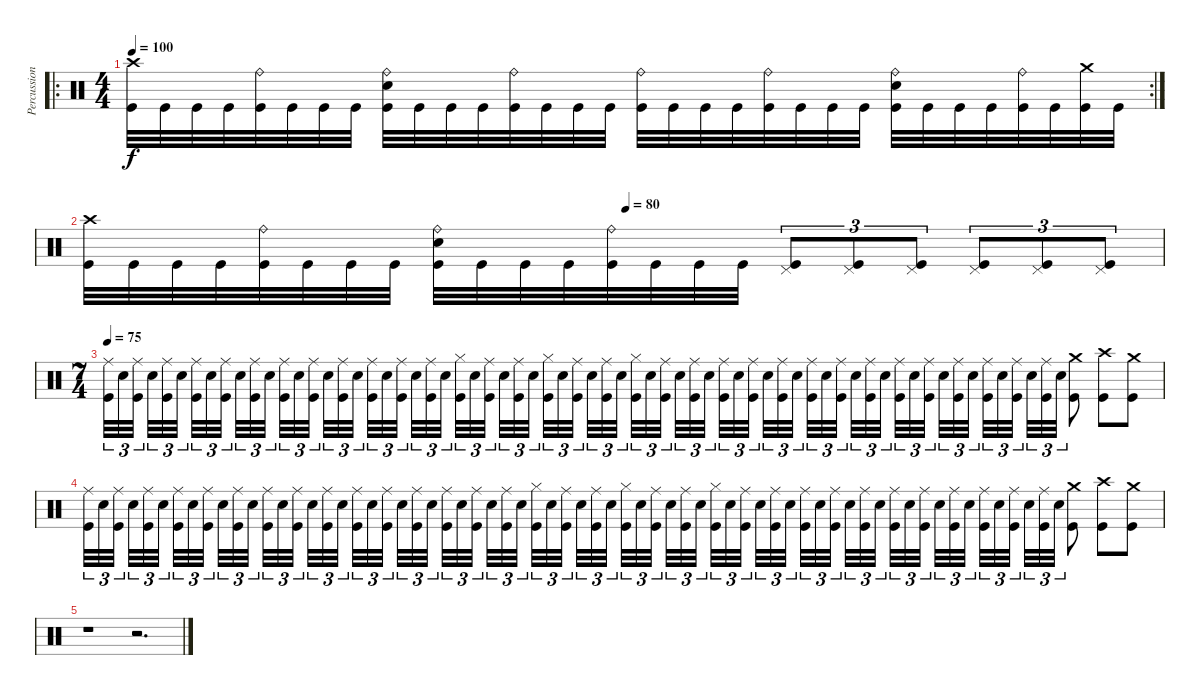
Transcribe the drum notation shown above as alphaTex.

\track ("Percussions" "Percussion") {instrument percussion}
\staff {score}
\articulation defaults
\ro
\rc 2
\ts (4 4)
\tempo 100
\clef neutral
\ks c
("Crash high (hit)" "Kick (hit)").32{dy f} "Kick (hit)".32 "Kick (hit)".32 "Kick (hit)".32 ("Ride (bell)" "Kick (hit)").32 "Kick (hit)".32 "Kick (hit)".32 "Kick (hit)".32 ("Electric Snare (hit)" "Ride (bell)" "Kick (hit)").32 "Kick (hit)".32 "Kick (hit)".32 "Kick (hit)".32 ("Ride (bell)" "Kick (hit)").32 "Kick (hit)".32 "Kick (hit)".32 "Kick (hit)".32 ("Ride (bell)" "Kick (hit)").32 "Kick (hit)".32 "Kick (hit)".32 "Kick (hit)".32 ("Ride (bell)" "Kick (hit)").32 "Kick (hit)".32 "Kick (hit)".32 "Kick (hit)".32 ("Electric Snare (hit)" "Ride (bell)" "Kick (hit)").32 "Kick (hit)".32 "Kick (hit)".32 "Kick (hit)".32 ("Ride (bell)" "Kick (hit)").32 "Kick (hit)".32 ("Crash medium (hit)" "Kick (hit)").32 "Kick (hit)".32 |
\tempo (80 0.5)
("Crash high (hit)" "Kick (hit)").32 "Kick (hit)".32 "Kick (hit)".32 "Kick (hit)".32 ("Ride (bell)" "Kick (hit)").32 "Kick (hit)".32 "Kick (hit)".32 "Kick (hit)".32 ("Electric Snare (hit)" "Ride (bell)" "Kick (hit)").32 "Kick (hit)".32 "Kick (hit)".32 "Kick (hit)".32 ("Ride (bell)" "Kick (hit)").32 "Kick (hit)".32 "Kick (hit)".32 "Kick (hit)".32 ("Pedal Hi-Hat (hit)" "Kick (hit)").8{tu (3 2)} ("Pedal Hi-Hat (hit)" "Kick (hit)").8{tu (3 2)} ("Pedal Hi-Hat (hit)" "Kick (hit)").8{tu (3 2)} ("Pedal Hi-Hat (hit)" "Kick (hit)").8{tu (3 2)} ("Pedal Hi-Hat (hit)" "Kick (hit)").8{tu (3 2)} ("Pedal Hi-Hat (hit)" "Kick (hit)").8{tu (3 2)} |
\ts (7 4)
\tempo 75
("Ride (middle)" "Kick (hit)").32{tu (3 2)} "Electric Snare (hit)".32{tu (3 2)} ("Ride (middle)" "Kick (hit)").32{tu (3 2)} "Electric Snare (hit)".32{tu (3 2)} ("Ride (middle)" "Kick (hit)").32{tu (3 2)} "Electric Snare (hit)".32{tu (3 2)} ("Ride (middle)" "Kick (hit)").32{tu (3 2)} "Electric Snare (hit)".32{tu (3 2)} ("Ride (middle)" "Kick (hit)").32{tu (3 2)} "Electric Snare (hit)".32{tu (3 2)} ("Ride (middle)" "Kick (hit)").32{tu (3 2)} "Electric Snare (hit)".32{tu (3 2)} ("Ride (middle)" "Kick (hit)").32{tu (3 2)} "Electric Snare (hit)".32{tu (3 2)} ("Ride (middle)" "Kick (hit)").32{tu (3 2)} "Electric Snare (hit)".32{tu (3 2)} ("Ride (middle)" "Kick (hit)").32{tu (3 2)} "Electric Snare (hit)".32{tu (3 2)} ("Ride (middle)" "Kick (hit)").32{tu (3 2)} "Electric Snare (hit)".32{tu (3 2)} ("Ride (middle)" "Kick (hit)").32{tu (3 2)} "Electric Snare (hit)".32{tu (3 2)} ("Ride (middle)" "Kick (hit)").32{tu (3 2)} "Electric Snare (hit)".32{tu (3 2)} ("Hi-Hat (closed)" "Kick (hit)").32{tu (3 2)} "Electric Snare (hit)".32{tu (3 2)} ("Ride (middle)" "Kick (hit)").32{tu (3 2)} "Electric Snare (hit)".32{tu (3 2)} ("Ride (middle)" "Kick (hit)").32{tu (3 2)} "Electric Snare (hit)".32{tu (3 2)} ("Hi-Hat (closed)" "Kick (hit)").32{tu (3 2)} "Electric Snare (hit)".32{tu (3 2)} ("Ride (middle)" "Kick (hit)").32{tu (3 2)} "Electric Snare (hit)".32{tu (3 2)} ("Ride (middle)" "Kick (hit)").32{tu (3 2)} "Electric Snare (hit)".32{tu (3 2)} ("Hi-Hat (closed)" "Kick (hit)").32{tu (3 2)} "Electric Snare (hit)".32{tu (3 2)} ("Ride (middle)" "Kick (hit)").32{tu (3 2)} "Electric Snare (hit)".32{tu (3 2)} ("Ride (middle)" "Kick (hit)").32{tu (3 2)} "Electric Snare (hit)".32{tu (3 2)} ("Ride (middle)" "Kick (hit)").32{tu (3 2)} "Electric Snare (hit)".32{tu (3 2)} ("Ride (middle)" "Kick (hit)").32{tu (3 2)} "Electric Snare (hit)".32{tu (3 2)} ("Ride (middle)" "Kick (hit)").32{tu (3 2)} "Electric Snare (hit)".32{tu (3 2)} ("Ride (middle)" "Kick (hit)").32{tu (3 2)} "Electric Snare (hit)".32{tu (3 2)} ("Ride (middle)" "Kick (hit)").32{tu (3 2)} "Electric Snare (hit)".32{tu (3 2)} ("Ride (middle)" "Kick (hit)").32{tu (3 2)} "Electric Snare (hit)".32{tu (3 2)} ("Ride (middle)" "Kick (hit)").32{tu (3 2)} "Electric Snare (hit)".32{tu (3 2)} ("Ride (middle)" "Kick (hit)").32{tu (3 2)} "Electric Snare (hit)".32{tu (3 2)} ("Ride (middle)" "Kick (hit)").32{tu (3 2)} "Electric Snare (hit)".32{tu (3 2)} ("Ride (middle)" "Kick (hit)").32{tu (3 2)} "Electric Snare (hit)".32{tu (3 2)} ("Ride (middle)" "Kick (hit)").32{tu (3 2)} "Electric Snare (hit)".32{tu (3 2)} ("Ride (middle)" "Kick (hit)").32{tu (3 2)} "Electric Snare (hit)".32{tu (3 2)} ("Crash medium (hit)" "Kick (hit)").8 ("Crash high (hit)" "Kick (hit)").8 ("Crash medium (hit)" "Kick (hit)").8 |
("Ride (middle)" "Kick (hit)").32{tu (3 2)} "Electric Snare (hit)".32{tu (3 2)} ("Ride (middle)" "Kick (hit)").32{tu (3 2)} "Electric Snare (hit)".32{tu (3 2)} ("Ride (middle)" "Kick (hit)").32{tu (3 2)} "Electric Snare (hit)".32{tu (3 2)} ("Ride (middle)" "Kick (hit)").32{tu (3 2)} "Electric Snare (hit)".32{tu (3 2)} ("Ride (middle)" "Kick (hit)").32{tu (3 2)} "Electric Snare (hit)".32{tu (3 2)} ("Ride (middle)" "Kick (hit)").32{tu (3 2)} "Electric Snare (hit)".32{tu (3 2)} ("Ride (middle)" "Kick (hit)").32{tu (3 2)} "Electric Snare (hit)".32{tu (3 2)} ("Ride (middle)" "Kick (hit)").32{tu (3 2)} "Electric Snare (hit)".32{tu (3 2)} ("Ride (middle)" "Kick (hit)").32{tu (3 2)} "Electric Snare (hit)".32{tu (3 2)} ("Ride (middle)" "Kick (hit)").32{tu (3 2)} "Electric Snare (hit)".32{tu (3 2)} ("Ride (middle)" "Kick (hit)").32{tu (3 2)} "Electric Snare (hit)".32{tu (3 2)} ("Ride (middle)" "Kick (hit)").32{tu (3 2)} "Electric Snare (hit)".32{tu (3 2)} ("Ride (middle)" "Kick (hit)").32{tu (3 2)} "Electric Snare (hit)".32{tu (3 2)} ("Ride (middle)" "Kick (hit)").32{tu (3 2)} "Electric Snare (hit)".32{tu (3 2)} ("Ride (middle)" "Kick (hit)").32{tu (3 2)} "Electric Snare (hit)".32{tu (3 2)} ("Hi-Hat (closed)" "Kick (hit)").32{tu (3 2)} "Electric Snare (hit)".32{tu (3 2)} ("Ride (middle)" "Kick (hit)").32{tu (3 2)} "Electric Snare (hit)".32{tu (3 2)} ("Ride (middle)" "Kick (hit)").32{tu (3 2)} "Electric Snare (hit)".32{tu (3 2)} ("Hi-Hat (closed)" "Kick (hit)").32{tu (3 2)} "Electric Snare (hit)".32{tu (3 2)} ("Ride (middle)" "Kick (hit)").32{tu (3 2)} "Electric Snare (hit)".32{tu (3 2)} ("Ride (middle)" "Kick (hit)").32{tu (3 2)} "Electric Snare (hit)".32{tu (3 2)} ("Hi-Hat (closed)" "Kick (hit)").32{tu (3 2)} "Electric Snare (hit)".32{tu (3 2)} ("Ride (middle)" "Kick (hit)").32{tu (3 2)} "Electric Snare (hit)".32{tu (3 2)} ("Ride (middle)" "Kick (hit)").32{tu (3 2)} "Electric Snare (hit)".32{tu (3 2)} ("Ride (middle)" "Kick (hit)").32{tu (3 2)} "Electric Snare (hit)".32{tu (3 2)} ("Ride (middle)" "Kick (hit)").32{tu (3 2)} "Electric Snare (hit)".32{tu (3 2)} ("Ride (middle)" "Kick (hit)").32{tu (3 2)} "Electric Snare (hit)".32{tu (3 2)} ("Ride (middle)" "Kick (hit)").32{tu (3 2)} "Electric Snare (hit)".32{tu (3 2)} ("Ride (middle)" "Kick (hit)").32{tu (3 2)} "Electric Snare (hit)".32{tu (3 2)} ("Ride (middle)" "Kick (hit)").32{tu (3 2)} "Electric Snare (hit)".32{tu (3 2)} ("Ride (middle)" "Kick (hit)").32{tu (3 2)} "Electric Snare (hit)".32{tu (3 2)} ("Ride (middle)" "Kick (hit)").32{tu (3 2)} "Electric Snare (hit)".32{tu (3 2)} ("Ride (middle)" "Kick (hit)").32{tu (3 2)} "Electric Snare (hit)".32{tu (3 2)} ("Crash medium (hit)" "Kick (hit)").8 ("Crash high (hit)" "Kick (hit)").8 ("Crash medium (hit)" "Kick (hit)").8 |
r.1 r.2{d}
